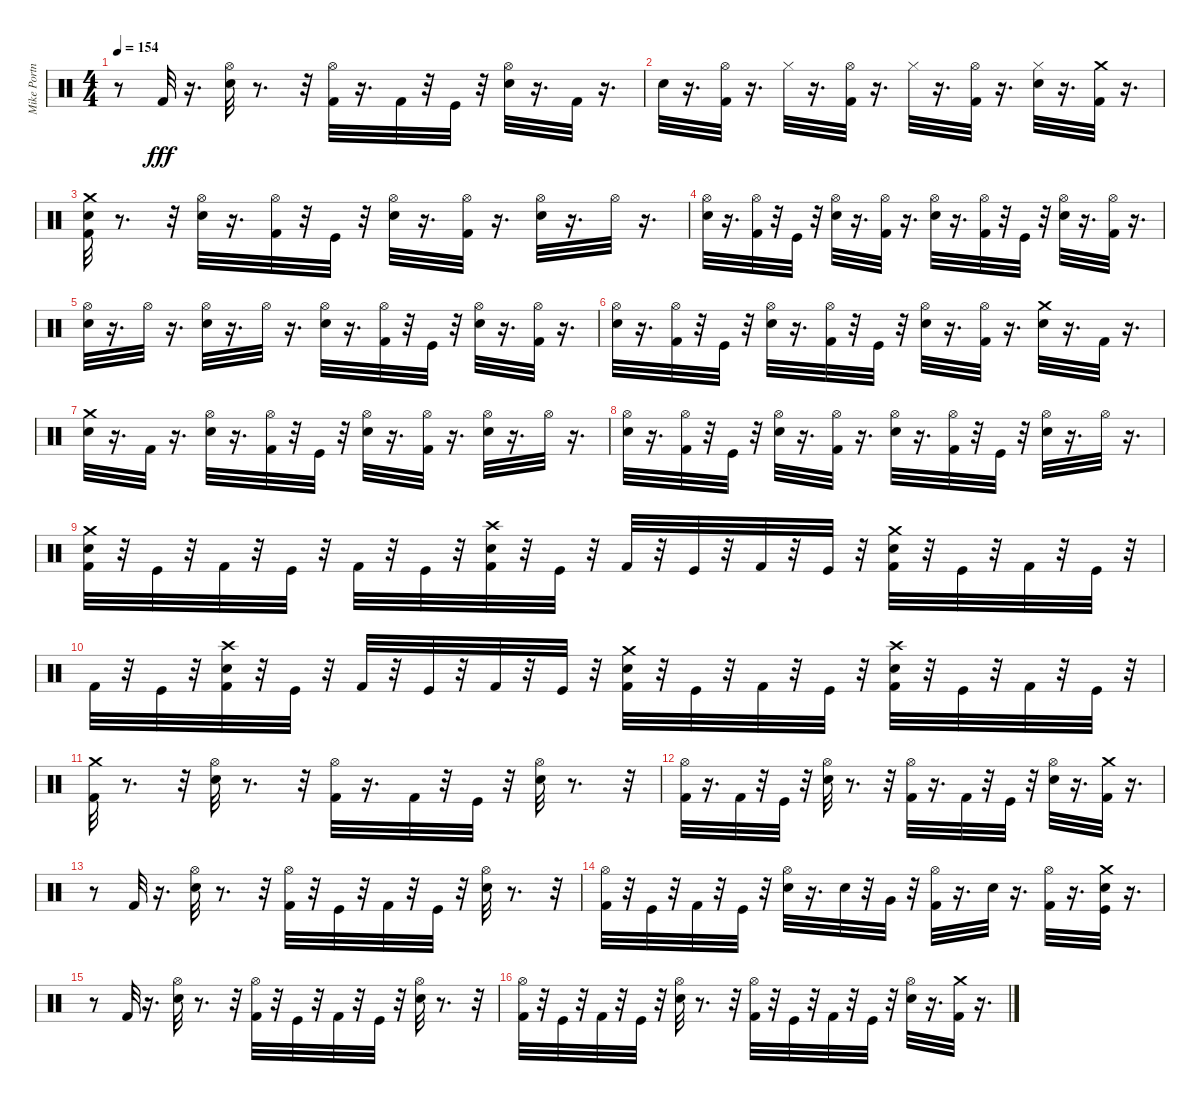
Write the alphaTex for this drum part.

\track ("Mike Portnoy" "Mike Portn") {instrument percussion}
\staff {score}
\articulation defaults
\ts (4 4)
\tempo 154
\clef neutral
\ks c
r.8{dy fff} "Kick (hit) 2".32 r.16{d} ("Snare (hit) 2" "Hi-Hat (open)").32 r.8{d} r.32 ("Kick (hit) 2" "Hi-Hat (open)").32 r.16{d} "Kick (hit) 2".32 r.32 "Kick (hit)".32 r.32 ("Snare (hit) 2" "Hi-Hat (open)").32 r.16{d} "Kick (hit) 2".32 r.16{d} |
"Snare (hit) 2".32 r.16{d} ("Kick (hit) 2" "Hi-Hat (open)").32 r.16{d} "Hi-Hat (closed)".32 r.16{d} ("Kick (hit) 2" "Hi-Hat (open)").32 r.16{d} "Hi-Hat (closed)".32 r.16{d} ("Kick (hit) 2" "Hi-Hat (open)").32 r.16{d} ("Snare (hit) 2" "Hi-Hat (closed)").32 r.16{d} ("Kick (hit) 2" "Crash medium (hit)").32 r.16{d} |
("Snare (hit) 2" "Kick (hit) 2" "Crash medium (hit)").32 r.8{d} r.32 ("Snare (hit) 2" "Hi-Hat (open)").32 r.16{d} ("Kick (hit) 2" "Hi-Hat (open)").32 r.32 "Kick (hit)".32 r.32 ("Snare (hit) 2" "Hi-Hat (open)").32 r.16{d} ("Kick (hit) 2" "Hi-Hat (open)").32 r.16{d} ("Snare (hit) 2" "Hi-Hat (open)").32 r.16{d} "Hi-Hat (open)".32 r.16{d} |
("Snare (hit) 2" "Hi-Hat (open)").32 r.16{d} ("Kick (hit) 2" "Hi-Hat (open)").32 r.32 "Kick (hit)".32 r.32 ("Snare (hit) 2" "Hi-Hat (open)").32 r.16{d} ("Kick (hit) 2" "Hi-Hat (open)").32 r.16{d} ("Snare (hit) 2" "Hi-Hat (open)").32 r.16{d} ("Kick (hit) 2" "Hi-Hat (open)").32 r.32 "Kick (hit)".32 r.32 ("Snare (hit) 2" "Hi-Hat (open)").32 r.16{d} ("Kick (hit) 2" "Hi-Hat (open)").32 r.16{d} |
("Snare (hit) 2" "Hi-Hat (open)").32 r.16{d} "Hi-Hat (open)".32 r.16{d} ("Snare (hit) 2" "Hi-Hat (open)").32 r.16{d} "Hi-Hat (open)".32 r.16{d} ("Snare (hit) 2" "Hi-Hat (open)").32 r.16{d} ("Kick (hit) 2" "Hi-Hat (open)").32 r.32 "Kick (hit)".32 r.32 ("Snare (hit) 2" "Hi-Hat (open)").32 r.16{d} ("Kick (hit) 2" "Hi-Hat (open)").32 r.16{d} |
("Snare (hit) 2" "Hi-Hat (open)").32 r.16{d} ("Kick (hit) 2" "Hi-Hat (open)").32 r.32 "Kick (hit)".32 r.32 ("Snare (hit) 2" "Hi-Hat (open)").32 r.16{d} ("Kick (hit) 2" "Hi-Hat (open)").32 r.32 "Kick (hit)".32 r.32 ("Snare (hit) 2" "Hi-Hat (open)").32 r.16{d} ("Kick (hit) 2" "Hi-Hat (open)").32 r.16{d} ("Snare (hit) 2" "Crash medium (hit)").32 r.16{d} "Kick (hit) 2".32 r.16{d} |
("Snare (hit) 2" "Crash medium (hit)").32 r.16{d} "Kick (hit) 2".32 r.16{d} ("Snare (hit) 2" "Hi-Hat (open)").32 r.16{d} ("Kick (hit) 2" "Hi-Hat (open)").32 r.32 "Kick (hit)".32 r.32 ("Snare (hit) 2" "Hi-Hat (open)").32 r.16{d} ("Kick (hit) 2" "Hi-Hat (open)").32 r.16{d} ("Snare (hit) 2" "Hi-Hat (open)").32 r.16{d} "Hi-Hat (open)".32 r.16{d} |
("Snare (hit) 2" "Hi-Hat (open)").32 r.16{d} ("Kick (hit) 2" "Hi-Hat (open)").32 r.32 "Kick (hit)".32 r.32 ("Snare (hit) 2" "Hi-Hat (open)").32 r.16{d} ("Kick (hit) 2" "Hi-Hat (open)").32 r.16{d} ("Snare (hit) 2" "Hi-Hat (open)").32 r.16{d} ("Kick (hit) 2" "Hi-Hat (open)").32 r.32 "Kick (hit)".32 r.32 ("Snare (hit) 2" "Hi-Hat (open)").32 r.16{d} "Hi-Hat (open)".32 r.16{d} |
("Crash medium (hit)" "Snare (hit) 2" "Kick (hit) 2").32 r.32 "Kick (hit)".32 r.32 "Kick (hit) 2".32 r.32 "Kick (hit)".32 r.32 "Kick (hit) 2".32 r.32 "Kick (hit)".32 r.32 ("Crash high (hit)" "Snare (hit) 2" "Kick (hit) 2").32 r.32 "Kick (hit)".32 r.32 "Kick (hit) 2".32 r.32 "Kick (hit)".32 r.32 "Kick (hit) 2".32 r.32 "Kick (hit)".32 r.32 ("Crash medium (hit)" "Snare (hit) 2" "Kick (hit) 2").32 r.32 "Kick (hit)".32 r.32 "Kick (hit) 2".32 r.32 "Kick (hit)".32 r.32 |
"Kick (hit) 2".32 r.32 "Kick (hit)".32 r.32 ("Crash high (hit)" "Snare (hit) 2" "Kick (hit) 2").32 r.32 "Kick (hit)".32 r.32 "Kick (hit) 2".32 r.32 "Kick (hit)".32 r.32 "Kick (hit) 2".32 r.32 "Kick (hit)".32 r.32 ("Crash medium (hit)" "Snare (hit) 2" "Kick (hit) 2").32 r.32 "Kick (hit)".32 r.32 "Kick (hit) 2".32 r.32 "Kick (hit)".32 r.32 ("Crash high (hit)" "Snare (hit) 2" "Kick (hit) 2").32 r.32 "Kick (hit)".32 r.32 "Kick (hit) 2".32 r.32 "Kick (hit)".32 r.32 |
("Kick (hit) 2" "Crash medium (hit)").32 r.8{d} r.32 ("Snare (hit) 2" "Hi-Hat (open)").32 r.8{d} r.32 ("Kick (hit) 2" "Hi-Hat (open)").32 r.16{d} "Kick (hit) 2".32 r.32 "Kick (hit)".32 r.32 ("Snare (hit) 2" "Hi-Hat (open)").32 r.8{d} r.32 |
("Kick (hit) 2" "Hi-Hat (open)").32 r.16{d} "Kick (hit) 2".32 r.32 "Kick (hit)".32 r.32 ("Snare (hit) 2" "Hi-Hat (open)").32 r.8{d} r.32 ("Kick (hit) 2" "Hi-Hat (open)").32 r.16{d} "Kick (hit) 2".32 r.32 "Kick (hit)".32 r.32 ("Snare (hit) 2" "Hi-Hat (open)").32 r.16{d} ("Kick (hit) 2" "Crash medium (hit)").32 r.16{d} |
r.8 "Kick (hit) 2".32 r.16{d} ("Snare (hit) 2" "Hi-Hat (open)").32 r.8{d} r.32 ("Kick (hit) 2" "Hi-Hat (open)").32 r.32 "Kick (hit)".32 r.32 "Kick (hit) 2".32 r.32 "Kick (hit)".32 r.32 ("Snare (hit) 2" "Hi-Hat (open)").32 r.8{d} r.32 |
("Kick (hit) 2" "Hi-Hat (open)").32 r.32 "Kick (hit)".32 r.32 "Kick (hit) 2".32 r.32 "Kick (hit)".32 r.32 ("Snare (hit) 2" "Hi-Hat (open)").32 r.16{d} "Snare (hit) 2".32 r.32 "Very Low Tom (hit)".32 r.32 ("Kick (hit) 2" "Hi-Hat (open)").32 r.16{d} "Snare (hit) 2".32 r.16{d} ("Kick (hit) 2" "Hi-Hat (open)").32 r.16{d} ("Snare (hit) 2" "Kick (hit)" "Crash medium (hit)").32 r.16{d} |
r.8 "Kick (hit) 2".32 r.16{d} ("Snare (hit) 2" "Hi-Hat (open)").32 r.8{d} r.32 ("Kick (hit) 2" "Hi-Hat (open)").32 r.32 "Kick (hit)".32 r.32 "Kick (hit) 2".32 r.32 "Kick (hit)".32 r.32 ("Snare (hit) 2" "Hi-Hat (open)").32 r.8{d} r.32 |
("Kick (hit) 2" "Hi-Hat (open)").32 r.32 "Kick (hit)".32 r.32 "Kick (hit) 2".32 r.32 "Kick (hit)".32 r.32 ("Snare (hit) 2" "Hi-Hat (open)").32 r.8{d} r.32 ("Kick (hit) 2" "Hi-Hat (open)").32 r.32 "Kick (hit)".32 r.32 "Kick (hit) 2".32 r.32 "Kick (hit)".32 r.32 ("Snare (hit) 2" "Hi-Hat (open)").32 r.16{d} ("Kick (hit) 2" "Crash medium (hit)").32 r.16{d}
